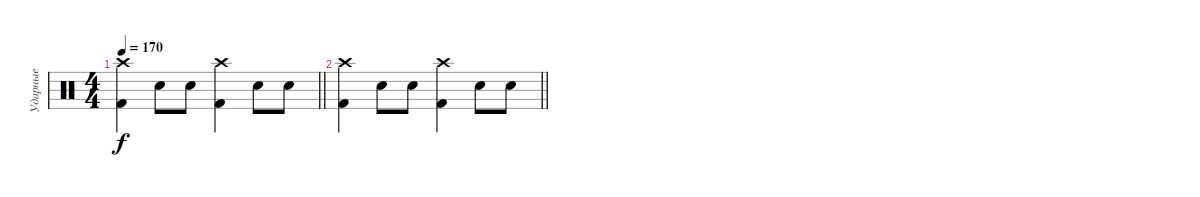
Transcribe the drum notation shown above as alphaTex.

\track ("Ударные" "Ударные") {instrument percussion}
\staff {score}
\articulation defaults
\ts (4 4)
\tempo 170
\clef neutral
\barLineRight lightlight
\ks c
("Crash high (hit)" "Kick (hit) 2").4{dy f} "Snare (hit) 2".8 "Snare (hit) 2".8 ("Crash high (hit)" "Kick (hit) 2").4 "Snare (hit) 2".8 "Snare (hit) 2".8 |
\barLineRight lightlight
("Crash high (hit)" "Kick (hit) 2").4 "Snare (hit) 2".8 "Snare (hit) 2".8 ("Crash high (hit)" "Kick (hit) 2").4 "Snare (hit) 2".8 "Snare (hit) 2".8
